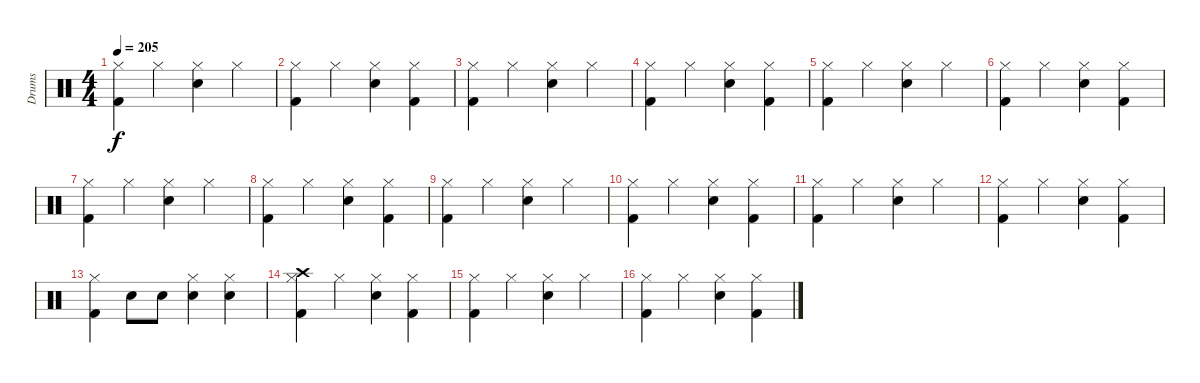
\track ("Drums" "Drums") {instrument percussion}
\staff {score}
\articulation defaults
\ts (4 4)
\tempo 205
\clef neutral
\ks c
("Kick (hit) 2" "Hi-Hat (closed)").4{dy f} "Hi-Hat (closed)".4 ("Snare (hit) 2" "Hi-Hat (closed)").4 "Hi-Hat (closed)".4 |
("Kick (hit) 2" "Hi-Hat (closed)").4 "Hi-Hat (closed)".4 ("Snare (hit) 2" "Hi-Hat (closed)").4 ("Kick (hit) 2" "Hi-Hat (closed)").4 |
("Kick (hit) 2" "Hi-Hat (closed)").4 "Hi-Hat (closed)".4 ("Snare (hit) 2" "Hi-Hat (closed)").4 "Hi-Hat (closed)".4 |
("Kick (hit) 2" "Hi-Hat (closed)").4 "Hi-Hat (closed)".4 ("Snare (hit) 2" "Hi-Hat (closed)").4 ("Kick (hit) 2" "Hi-Hat (closed)").4 |
("Kick (hit) 2" "Hi-Hat (closed)").4 "Hi-Hat (closed)".4 ("Snare (hit) 2" "Hi-Hat (closed)").4 "Hi-Hat (closed)".4 |
("Kick (hit) 2" "Hi-Hat (closed)").4 "Hi-Hat (closed)".4 ("Snare (hit) 2" "Hi-Hat (closed)").4 ("Kick (hit) 2" "Hi-Hat (closed)").4 |
("Kick (hit) 2" "Hi-Hat (closed)").4 "Hi-Hat (closed)".4 ("Snare (hit) 2" "Hi-Hat (closed)").4 "Hi-Hat (closed)".4 |
("Kick (hit) 2" "Hi-Hat (closed)").4 "Hi-Hat (closed)".4 ("Snare (hit) 2" "Hi-Hat (closed)").4 ("Kick (hit) 2" "Hi-Hat (closed)").4 |
("Kick (hit) 2" "Hi-Hat (closed)").4 "Hi-Hat (closed)".4 ("Snare (hit) 2" "Hi-Hat (closed)").4 "Hi-Hat (closed)".4 |
("Kick (hit) 2" "Hi-Hat (closed)").4 "Hi-Hat (closed)".4 ("Snare (hit) 2" "Hi-Hat (closed)").4 ("Kick (hit) 2" "Hi-Hat (closed)").4 |
("Kick (hit) 2" "Hi-Hat (closed)").4 "Hi-Hat (closed)".4 ("Snare (hit) 2" "Hi-Hat (closed)").4 "Hi-Hat (closed)".4 |
("Kick (hit) 2" "Hi-Hat (closed)").4 "Hi-Hat (closed)".4 ("Snare (hit) 2" "Hi-Hat (closed)").4 ("Kick (hit) 2" "Hi-Hat (closed)").4 |
("Kick (hit) 2" "Hi-Hat (closed)").4 "Snare (hit) 2".8 "Snare (hit) 2".8 ("Snare (hit) 2" "Hi-Hat (closed)").4 ("Snare (hit) 2" "Hi-Hat (closed)").4 |
("Crash high (hit)" "Kick (hit) 2" "Hi-Hat (closed)").4 "Hi-Hat (closed)".4 ("Snare (hit) 2" "Hi-Hat (closed)").4 ("Kick (hit) 2" "Hi-Hat (closed)").4 |
("Kick (hit) 2" "Hi-Hat (closed)").4 "Hi-Hat (closed)".4 ("Snare (hit) 2" "Hi-Hat (closed)").4 "Hi-Hat (closed)".4 |
("Kick (hit) 2" "Hi-Hat (closed)").4 "Hi-Hat (closed)".4 ("Snare (hit) 2" "Hi-Hat (closed)").4 ("Kick (hit) 2" "Hi-Hat (closed)").4
